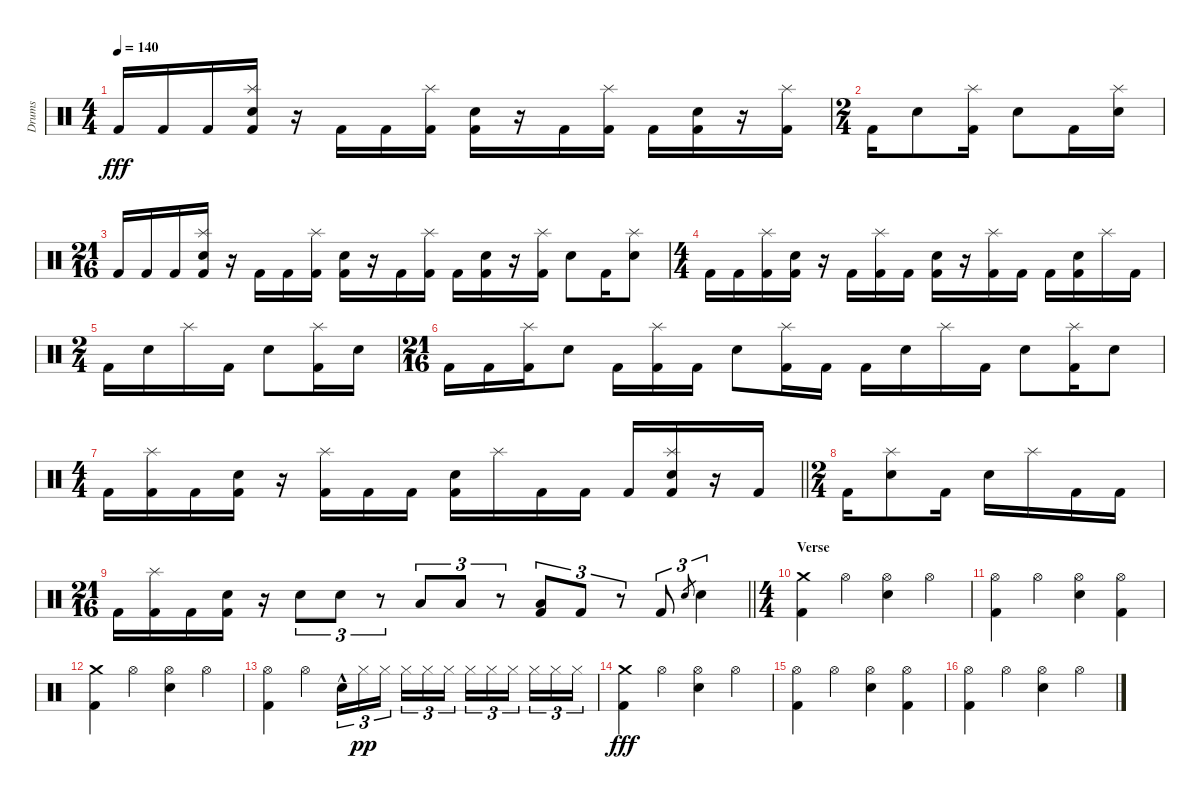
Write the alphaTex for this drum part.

\track ("Drums" "Drums") {instrument percussion}
\staff {score}
\articulation defaults
\ts (4 4)
\tempo 140
\clef neutral
\ks c "Kick (hit) 2".16{dy fff} "Kick (hit) 2".16 "Kick (hit) 2".16
("Splash (hit)" "Electric Snare (hit)" "Kick (hit) 2").16 r.16 "Kick (hit) 2".16 "Kick (hit) 2".16 ("Splash (hit)" "Kick (hit) 2").16 ("Electric Snare (hit)" "Kick (hit) 2").16 r.16 "Kick (hit) 2".16 ("Splash (hit)" "Kick (hit) 2").16 "Kick (hit) 2".16 ("Electric Snare (hit)" "Kick (hit) 2").16 r.16 ("Splash (hit)" "Kick (hit) 2").16 |
\ts (2 4)
"Kick (hit) 2".16 "Electric Snare (hit)".8 ("Splash (hit)" "Kick (hit) 2").16 "Electric Snare (hit)".8 "Kick (hit) 2".16 ("Splash (hit)" "Electric Snare (hit)").16 |
\ts (21 16)
"Kick (hit) 2".16 "Kick (hit) 2".16 "Kick (hit) 2".16 ("Splash (hit)" "Electric Snare (hit)" "Kick (hit) 2").16 r.16 "Kick (hit) 2".16 "Kick (hit) 2".16 ("Splash (hit)" "Kick (hit) 2").16 ("Electric Snare (hit)" "Kick (hit) 2").16 r.16 "Kick (hit) 2".16 ("Splash (hit)" "Kick (hit) 2").16 "Kick (hit) 2".16 ("Electric Snare (hit)" "Kick (hit) 2").16 r.16 ("Splash (hit)" "Kick (hit) 2").16 "Electric Snare (hit)".8 "Kick (hit) 2".16 ("Splash (hit)" "Electric Snare (hit)").8 |
\ts (4 4)
"Kick (hit) 2".16 "Kick (hit) 2".16 ("Splash (hit)" "Kick (hit) 2").16 ("Electric Snare (hit)" "Kick (hit) 2").16 r.16 "Kick (hit) 2".16 ("Splash (hit)" "Kick (hit) 2").16 "Kick (hit) 2".16 ("Electric Snare (hit)" "Kick (hit) 2").16 r.16 ("Splash (hit)" "Kick (hit) 2").16 "Kick (hit) 2".16 "Kick (hit) 2".16 ("Electric Snare (hit)" "Kick (hit) 2").16 "Splash (hit)".16 "Kick (hit) 2".16 |
\ts (2 4)
"Kick (hit) 2".16 "Electric Snare (hit)".16 "Splash (hit)".16 "Kick (hit) 2".16 "Electric Snare (hit)".8 ("Splash (hit)" "Kick (hit) 2").16 "Electric Snare (hit)".16 |
\ts (21 16)
"Kick (hit) 2".16 "Kick (hit) 2".16 ("Splash (hit)" "Kick (hit) 2").16 "Electric Snare (hit)".8 "Kick (hit) 2".16 ("Splash (hit)" "Kick (hit) 2").16 "Kick (hit) 2".16 "Electric Snare (hit)".8 ("Splash (hit)" "Kick (hit) 2").16 "Kick (hit) 2".16 "Kick (hit) 2".16 "Electric Snare (hit)".16 "Splash (hit)".16 "Kick (hit) 2".16 "Electric Snare (hit)".8 ("Splash (hit)" "Kick (hit) 2").16 "Electric Snare (hit)".8 |
\ts (4 4)
\barLineRight lightlight "Kick (hit) 2".16
("Splash (hit)" "Kick (hit) 2").16 "Kick (hit) 2".16 ("Electric Snare (hit)" "Kick (hit) 2").16 r.16 ("Splash (hit)" "Kick (hit) 2").16 "Kick (hit) 2".16 "Kick (hit) 2".16 ("Electric Snare (hit)" "Kick (hit) 2").16 "Splash (hit)".16 "Kick (hit) 2".16 "Kick (hit) 2".16 "Kick (hit) 2".16 ("Splash (hit)" "Electric Snare (hit)" "Kick (hit) 2").16 r.16 "Kick (hit) 2".16 |
\ts (2 4)
"Kick (hit) 2".16 ("Splash (hit)" "Electric Snare (hit)").8 "Kick (hit) 2".16 "Electric Snare (hit)".16 "Splash (hit)".16 "Kick (hit) 2".16 "Kick (hit) 2".16 |
\ts (21 16)
\barLineRight lightlight "Kick (hit) 2".16
("Splash (hit)" "Kick (hit) 2").16 "Kick (hit) 2".16 ("Electric Snare (hit)" "Kick (hit) 2").16 r.16 "Electric Snare (hit)".8{tu (3 2)} "Electric Snare (hit)".8{tu (3 2)} r.8{tu (3 2)} "Low Tom (hit)".8{tu (3 2)} "Low Tom (hit)".8{tu (3 2)} r.8{tu (3 2)} ("Low Floor Tom (hit)" "Kick (hit) 2").8{tu (3 2)} "Kick (hit) 2".8{tu (3 2)} r.8{tu (3 2)} "Kick (hit) 2".8{tu (3 2)} "Electric Snare (hit)".8{gr} "Electric Snare (hit)".4{tu (3 2)} |
\ts (4 4)
\section ("" "Verse")
("Crash medium (hit)" "Kick (hit) 2").4 "Hi-Hat (open)".4 ("Hi-Hat (open)" "Electric Snare (hit)").4 "Hi-Hat (open)".4 |
("Hi-Hat (open)" "Kick (hit) 2").4 "Hi-Hat (open)".4 ("Hi-Hat (open)" "Electric Snare (hit)").4 ("Hi-Hat (open)" "Kick (hit) 2").4 |
("Crash medium (hit)" "Kick (hit) 2").4 "Hi-Hat (open)".4 ("Hi-Hat (open)" "Electric Snare (hit)").4 "Hi-Hat (open)".4 |
("Hi-Hat (open)" "Kick (hit) 2").4 "Hi-Hat (open)".4 "Electric Snare (hit)"{hac}.16{tu (3 2)} "Hi-Hat (closed)".16{tu (3 2) dy pp} "Hi-Hat (closed)".16{tu (3 2) beam splitsecondary} "Hi-Hat (closed)".16{tu (3 2)} "Hi-Hat (closed)".16{tu (3 2)} "Hi-Hat (closed)".16{tu (3 2)} "Hi-Hat (closed)".16{tu (3 2)} "Hi-Hat (closed)".16{tu (3 2)} "Hi-Hat (closed)".16{tu (3 2) beam splitsecondary} "Hi-Hat (closed)".16{tu (3 2)} "Hi-Hat (closed)".16{tu (3 2)} "Hi-Hat (closed)".16{tu (3 2)} |
("Crash medium (hit)" "Kick (hit) 2").4{dy fff} "Hi-Hat (open)".4 ("Hi-Hat (open)" "Electric Snare (hit)").4 "Hi-Hat (open)".4 |
("Hi-Hat (open)" "Kick (hit) 2").4 "Hi-Hat (open)".4 ("Hi-Hat (open)" "Electric Snare (hit)").4 ("Hi-Hat (open)" "Kick (hit) 2").4 |
("Hi-Hat (open)" "Kick (hit) 2").4 "Hi-Hat (open)".4 ("Hi-Hat (open)" "Electric Snare (hit)").4 "Hi-Hat (open)".4
